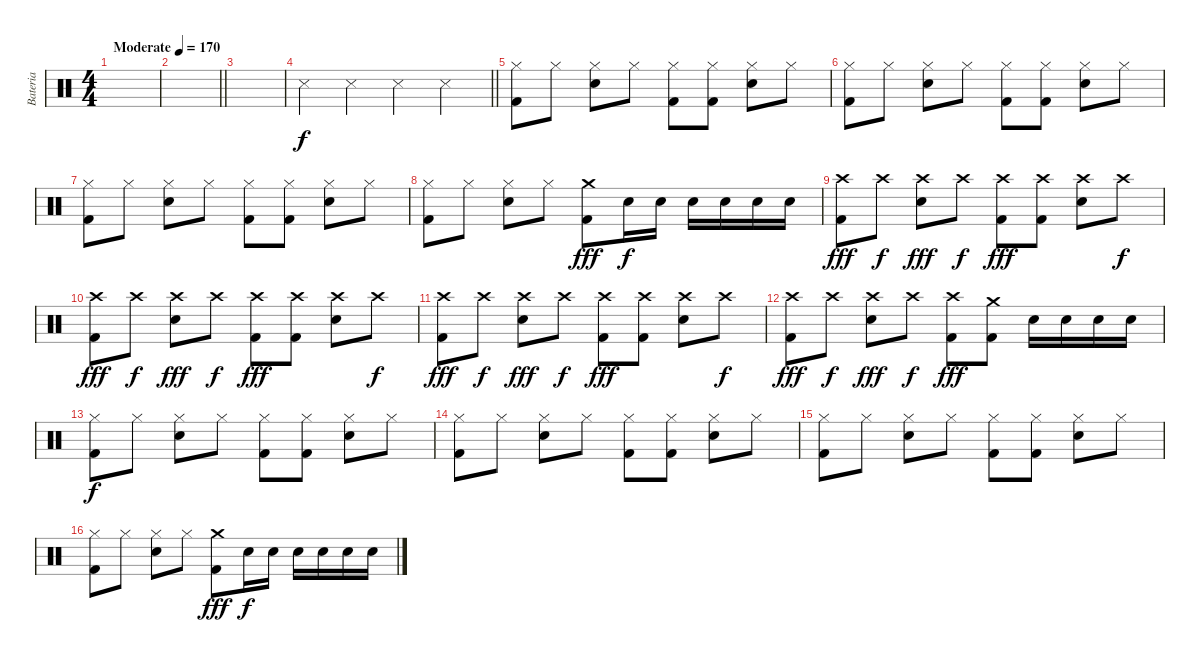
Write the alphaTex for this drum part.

\track ("Bateria" "Bateria") {instrument percussion}
\staff {score}
\articulation defaults
\ts (4 4)
\tempo (170 "Moderate")
\clef neutral
\ks c
|
\barLineRight lightlight
|
|
\barLineRight lightlight "Metronome (hit)".4 "Metronome (hit)".4 "Metronome (hit)".4 "Metronome (hit)".4
|
("Hi-Hat (closed)" "Kick (hit) 2").8 "Hi-Hat (closed)".8 ("Hi-Hat (closed)" "Electric Snare (hit)").8 "Hi-Hat (closed)".8 ("Hi-Hat (closed)" "Kick (hit) 2").8 ("Hi-Hat (closed)" "Kick (hit) 2").8 ("Hi-Hat (closed)" "Electric Snare (hit)").8 "Hi-Hat (closed)".8 |
("Hi-Hat (closed)" "Kick (hit) 2").8 "Hi-Hat (closed)".8 ("Hi-Hat (closed)" "Electric Snare (hit)").8 "Hi-Hat (closed)".8 ("Hi-Hat (closed)" "Kick (hit) 2").8 ("Hi-Hat (closed)" "Kick (hit) 2").8 ("Hi-Hat (closed)" "Electric Snare (hit)").8 "Hi-Hat (closed)".8 |
("Hi-Hat (closed)" "Kick (hit) 2").8 "Hi-Hat (closed)".8 ("Hi-Hat (closed)" "Electric Snare (hit)").8 "Hi-Hat (closed)".8 ("Hi-Hat (closed)" "Kick (hit) 2").8 ("Hi-Hat (closed)" "Kick (hit) 2").8 ("Hi-Hat (closed)" "Electric Snare (hit)").8 "Hi-Hat (closed)".8 |
("Hi-Hat (closed)" "Kick (hit) 2").8 "Hi-Hat (closed)".8 ("Hi-Hat (closed)" "Electric Snare (hit)").8 "Hi-Hat (closed)".8 ("Crash medium (hit)" "Kick (hit) 2").8{dy fff} "Electric Snare (hit)".16{dy f} "Electric Snare (hit)".16 "Electric Snare (hit)".16 "Electric Snare (hit)".16 "Electric Snare (hit)".16 "Electric Snare (hit)".16 |
("Crash high (hit)" "Kick (hit) 2").8{dy fff} "Crash high (hit)".8{dy f} ("Crash high (hit)" "Electric Snare (hit)").8{dy fff} "Crash high (hit)".8{dy f} ("Crash high (hit)" "Kick (hit) 2").8{dy fff} ("Crash high (hit)" "Kick (hit) 2").8 ("Crash high (hit)" "Electric Snare (hit)").8 "Crash high (hit)".8{dy f} |
("Crash high (hit)" "Kick (hit) 2").8{dy fff} "Crash high (hit)".8{dy f} ("Crash high (hit)" "Electric Snare (hit)").8{dy fff} "Crash high (hit)".8{dy f} ("Crash high (hit)" "Kick (hit) 2").8{dy fff} ("Crash high (hit)" "Kick (hit) 2").8 ("Crash high (hit)" "Electric Snare (hit)").8 "Crash high (hit)".8{dy f} |
("Crash high (hit)" "Kick (hit) 2").8{dy fff} "Crash high (hit)".8{dy f} ("Crash high (hit)" "Electric Snare (hit)").8{dy fff} "Crash high (hit)".8{dy f} ("Crash high (hit)" "Kick (hit) 2").8{dy fff} ("Crash high (hit)" "Kick (hit) 2").8 ("Crash high (hit)" "Electric Snare (hit)").8 "Crash high (hit)".8{dy f} |
("Crash high (hit)" "Kick (hit) 2").8{dy fff} "Crash high (hit)".8{dy f} ("Crash high (hit)" "Electric Snare (hit)").8{dy fff} "Crash high (hit)".8{dy f} ("Crash high (hit)" "Kick (hit) 2").8{dy fff} ("Crash medium (hit)" "Kick (hit) 2").8 "Electric Snare (hit)".16 "Electric Snare (hit)".16 "Electric Snare (hit)".16 "Electric Snare (hit)".16 |
("Hi-Hat (closed)" "Kick (hit) 2").8{dy f} "Hi-Hat (closed)".8 ("Hi-Hat (closed)" "Electric Snare (hit)").8 "Hi-Hat (closed)".8 ("Hi-Hat (closed)" "Kick (hit) 2").8 ("Hi-Hat (closed)" "Kick (hit) 2").8 ("Hi-Hat (closed)" "Electric Snare (hit)").8 "Hi-Hat (closed)".8 |
("Hi-Hat (closed)" "Kick (hit) 2").8 "Hi-Hat (closed)".8 ("Hi-Hat (closed)" "Electric Snare (hit)").8 "Hi-Hat (closed)".8 ("Hi-Hat (closed)" "Kick (hit) 2").8 ("Hi-Hat (closed)" "Kick (hit) 2").8 ("Hi-Hat (closed)" "Electric Snare (hit)").8 "Hi-Hat (closed)".8 |
("Hi-Hat (closed)" "Kick (hit) 2").8 "Hi-Hat (closed)".8 ("Hi-Hat (closed)" "Electric Snare (hit)").8 "Hi-Hat (closed)".8 ("Hi-Hat (closed)" "Kick (hit) 2").8 ("Hi-Hat (closed)" "Kick (hit) 2").8 ("Hi-Hat (closed)" "Electric Snare (hit)").8 "Hi-Hat (closed)".8 |
("Hi-Hat (closed)" "Kick (hit) 2").8 "Hi-Hat (closed)".8 ("Hi-Hat (closed)" "Electric Snare (hit)").8 "Hi-Hat (closed)".8 ("Crash medium (hit)" "Kick (hit) 2").8{dy fff} "Electric Snare (hit)".16{dy f} "Electric Snare (hit)".16 "Electric Snare (hit)".16 "Electric Snare (hit)".16 "Electric Snare (hit)".16 "Electric Snare (hit)".16
